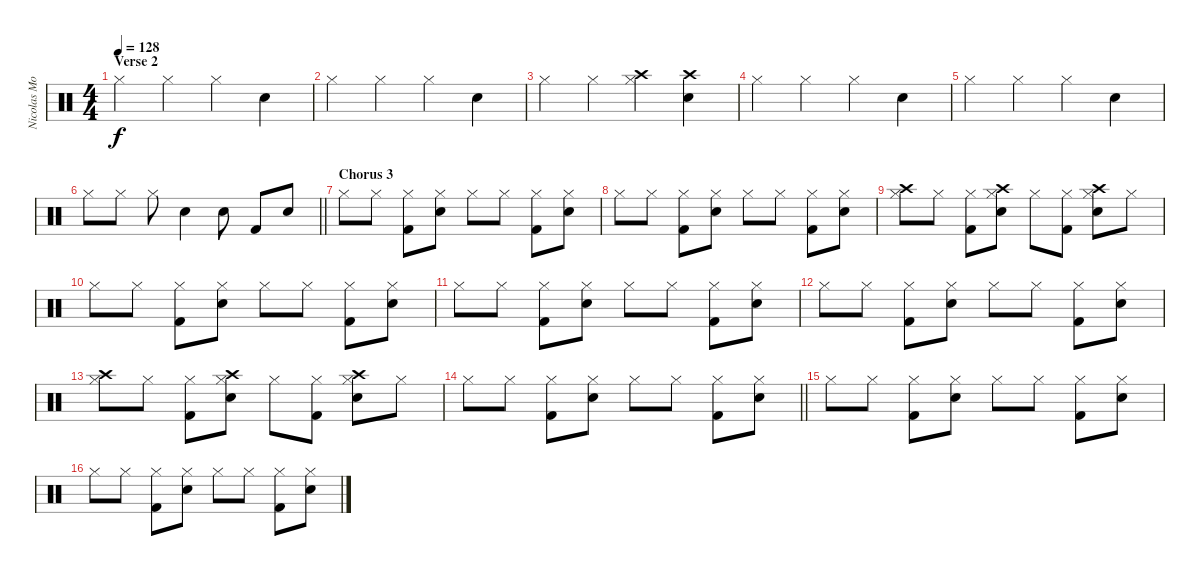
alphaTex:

\track ("Nicolas Mosquera" "Nicolas Mo") {mute instrument percussion}
\staff {score}
\articulation defaults
\ts (4 4)
\section ("" "Verse 2")
\tempo 128
\clef neutral
\ks c "Hi-Hat (closed)".4{dy f} "Hi-Hat (closed)".4 "Hi-Hat (closed)".4 "Snare (hit) 2".4
|
"Hi-Hat (closed)".4 "Hi-Hat (closed)".4 "Hi-Hat (closed)".4 "Snare (hit) 2".4 |
"Hi-Hat (closed)".4 "Hi-Hat (closed)".4 ("Hi-Hat (closed)" "Crash high (hit)").4 ("Snare (hit) 2" "Crash high (hit)").4 |
"Hi-Hat (closed)".4 "Hi-Hat (closed)".4 "Hi-Hat (closed)".4 "Snare (hit) 2".4 |
"Hi-Hat (closed)".4 "Hi-Hat (closed)".4 "Hi-Hat (closed)".4 "Snare (hit) 2".4 |
\barLineRight lightlight "Hi-Hat (closed)".8 "Hi-Hat (closed)".8 "Hi-Hat (closed)".8 "Snare (hit) 2".4 "Snare (hit) 2".8 "Kick (hit) 2".8 "Snare (hit) 2".8
|
\section ("" "Chorus 3")
"Hi-Hat (closed)".8 "Hi-Hat (closed)".8 ("Hi-Hat (closed)" "Kick (hit) 2").8 ("Hi-Hat (closed)" "Snare (hit) 2").8 "Hi-Hat (closed)".8 "Hi-Hat (closed)".8 ("Hi-Hat (closed)" "Kick (hit) 2").8 ("Hi-Hat (closed)" "Snare (hit) 2").8 |
"Hi-Hat (closed)".8 "Hi-Hat (closed)".8 ("Hi-Hat (closed)" "Kick (hit) 2").8 ("Hi-Hat (closed)" "Snare (hit) 2").8 "Hi-Hat (closed)".8 "Hi-Hat (closed)".8 ("Hi-Hat (closed)" "Kick (hit) 2").8 ("Hi-Hat (closed)" "Snare (hit) 2").8 |
("Hi-Hat (closed)" "Crash high (hit)").8 "Hi-Hat (closed)".8 ("Hi-Hat (closed)" "Kick (hit) 2").8 ("Hi-Hat (closed)" "Snare (hit) 2" "Crash high (hit)").8 "Hi-Hat (closed)".8 ("Hi-Hat (closed)" "Kick (hit) 2").8 ("Hi-Hat (closed)" "Snare (hit) 2" "Crash high (hit)").8 "Hi-Hat (closed)".8 |
"Hi-Hat (closed)".8 "Hi-Hat (closed)".8 ("Hi-Hat (closed)" "Kick (hit) 2").8 ("Hi-Hat (closed)" "Snare (hit) 2").8 "Hi-Hat (closed)".8 "Hi-Hat (closed)".8 ("Hi-Hat (closed)" "Kick (hit) 2").8 ("Hi-Hat (closed)" "Snare (hit) 2").8 |
"Hi-Hat (closed)".8 "Hi-Hat (closed)".8 ("Hi-Hat (closed)" "Kick (hit) 2").8 ("Hi-Hat (closed)" "Snare (hit) 2").8 "Hi-Hat (closed)".8 "Hi-Hat (closed)".8 ("Hi-Hat (closed)" "Kick (hit) 2").8 ("Hi-Hat (closed)" "Snare (hit) 2").8 |
"Hi-Hat (closed)".8 "Hi-Hat (closed)".8 ("Hi-Hat (closed)" "Kick (hit) 2").8 ("Hi-Hat (closed)" "Snare (hit) 2").8 "Hi-Hat (closed)".8 "Hi-Hat (closed)".8 ("Hi-Hat (closed)" "Kick (hit) 2").8 ("Hi-Hat (closed)" "Snare (hit) 2").8 |
("Hi-Hat (closed)" "Crash high (hit)").8 "Hi-Hat (closed)".8 ("Hi-Hat (closed)" "Kick (hit) 2").8 ("Hi-Hat (closed)" "Snare (hit) 2" "Crash high (hit)").8 "Hi-Hat (closed)".8 ("Hi-Hat (closed)" "Kick (hit) 2").8 ("Hi-Hat (closed)" "Snare (hit) 2" "Crash high (hit)").8 "Hi-Hat (closed)".8 |
\barLineRight lightlight "Hi-Hat (closed)".8 "Hi-Hat (closed)".8
("Hi-Hat (closed)" "Kick (hit) 2").8 ("Hi-Hat (closed)" "Snare (hit) 2").8 "Hi-Hat (closed)".8 "Hi-Hat (closed)".8 ("Hi-Hat (closed)" "Kick (hit) 2").8 ("Hi-Hat (closed)" "Snare (hit) 2").8 |
"Hi-Hat (closed)".8 "Hi-Hat (closed)".8 ("Hi-Hat (closed)" "Kick (hit) 2").8 ("Hi-Hat (closed)" "Snare (hit) 2").8 "Hi-Hat (closed)".8 "Hi-Hat (closed)".8 ("Hi-Hat (closed)" "Kick (hit) 2").8 ("Hi-Hat (closed)" "Snare (hit) 2").8 |
"Hi-Hat (closed)".8 "Hi-Hat (closed)".8 ("Hi-Hat (closed)" "Kick (hit) 2").8 ("Hi-Hat (closed)" "Snare (hit) 2").8 "Hi-Hat (closed)".8 "Hi-Hat (closed)".8 ("Hi-Hat (closed)" "Kick (hit) 2").8 ("Hi-Hat (closed)" "Snare (hit) 2").8
